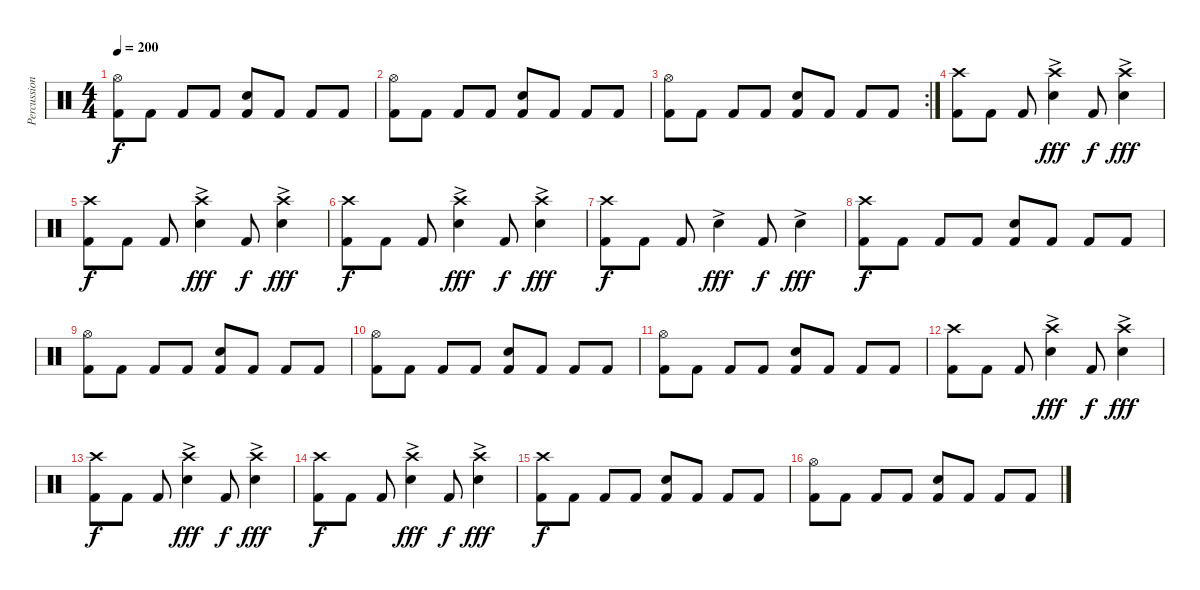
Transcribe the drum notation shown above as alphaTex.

\track ("Percussion" "Percussion") {instrument percussion}
\staff {score}
\articulation defaults
\ts (4 4)
\tempo 200
\clef neutral
\ks c
("Hi-Hat (open)" "Kick (hit) 2").8{dy f} "Kick (hit) 2".8 "Kick (hit) 2".8 "Kick (hit) 2".8 ("Electric Snare (hit)" "Kick (hit) 2").8 "Kick (hit) 2".8 "Kick (hit) 2".8 "Kick (hit) 2".8 |
("Hi-Hat (open)" "Kick (hit) 2").8 "Kick (hit) 2".8 "Kick (hit) 2".8 "Kick (hit) 2".8 ("Electric Snare (hit)" "Kick (hit) 2").8 "Kick (hit) 2".8 "Kick (hit) 2".8 "Kick (hit) 2".8 |
\rc 2
("Hi-Hat (open)" "Kick (hit) 2").8 "Kick (hit) 2".8 "Kick (hit) 2".8 "Kick (hit) 2".8 ("Electric Snare (hit)" "Kick (hit) 2").8 "Kick (hit) 2".8 "Kick (hit) 2".8 "Kick (hit) 2".8 |
("Crash high (hit)" "Kick (hit) 2").8 "Kick (hit) 2".8 "Kick (hit) 2".8 ("Crash high (hit)" "Electric Snare (hit)"{ac}).4{dy fff} "Kick (hit) 2".8{dy f} ("Crash high (hit)" "Electric Snare (hit)"{ac}).4{dy fff} |
("Crash high (hit)" "Kick (hit) 2").8{dy f} "Kick (hit) 2".8 "Kick (hit) 2".8 ("Crash high (hit)" "Electric Snare (hit)"{ac}).4{dy fff} "Kick (hit) 2".8{dy f} ("Crash high (hit)" "Electric Snare (hit)"{ac}).4{dy fff} |
("Crash high (hit)" "Kick (hit) 2").8{dy f} "Kick (hit) 2".8 "Kick (hit) 2".8 ("Crash high (hit)" "Electric Snare (hit)"{ac}).4{dy fff} "Kick (hit) 2".8{dy f} ("Crash high (hit)" "Electric Snare (hit)"{ac}).4{dy fff} |
("Crash high (hit)" "Kick (hit) 2").8{dy f} "Kick (hit) 2".8 "Kick (hit) 2".8 "Electric Snare (hit)"{ac}.4{dy fff} "Kick (hit) 2".8{dy f} "Electric Snare (hit)"{ac}.4{dy fff} |
("Crash high (hit)" "Kick (hit) 2").8{dy f} "Kick (hit) 2".8 "Kick (hit) 2".8 "Kick (hit) 2".8 ("Electric Snare (hit)" "Kick (hit) 2").8 "Kick (hit) 2".8 "Kick (hit) 2".8 "Kick (hit) 2".8 |
("Hi-Hat (open)" "Kick (hit) 2").8 "Kick (hit) 2".8 "Kick (hit) 2".8 "Kick (hit) 2".8 ("Electric Snare (hit)" "Kick (hit) 2").8 "Kick (hit) 2".8 "Kick (hit) 2".8 "Kick (hit) 2".8 |
("Hi-Hat (open)" "Kick (hit) 2").8 "Kick (hit) 2".8 "Kick (hit) 2".8 "Kick (hit) 2".8 ("Electric Snare (hit)" "Kick (hit) 2").8 "Kick (hit) 2".8 "Kick (hit) 2".8 "Kick (hit) 2".8 |
("Hi-Hat (open)" "Kick (hit) 2").8 "Kick (hit) 2".8 "Kick (hit) 2".8 "Kick (hit) 2".8 ("Electric Snare (hit)" "Kick (hit) 2").8 "Kick (hit) 2".8 "Kick (hit) 2".8 "Kick (hit) 2".8 |
("Crash high (hit)" "Kick (hit) 2").8 "Kick (hit) 2".8 "Kick (hit) 2".8 ("Crash high (hit)" "Electric Snare (hit)"{ac}).4{dy fff} "Kick (hit) 2".8{dy f} ("Crash high (hit)" "Electric Snare (hit)"{ac}).4{dy fff} |
("Crash high (hit)" "Kick (hit) 2").8{dy f} "Kick (hit) 2".8 "Kick (hit) 2".8 ("Crash high (hit)" "Electric Snare (hit)"{ac}).4{dy fff} "Kick (hit) 2".8{dy f} ("Crash high (hit)" "Electric Snare (hit)"{ac}).4{dy fff} |
("Crash high (hit)" "Kick (hit) 2").8{dy f} "Kick (hit) 2".8 "Kick (hit) 2".8 ("Crash high (hit)" "Electric Snare (hit)"{ac}).4{dy fff} "Kick (hit) 2".8{dy f} ("Crash high (hit)" "Electric Snare (hit)"{ac}).4{dy fff} |
("Crash high (hit)" "Kick (hit) 2").8{dy f} "Kick (hit) 2".8 "Kick (hit) 2".8 "Kick (hit) 2".8 ("Electric Snare (hit)" "Kick (hit) 2").8 "Kick (hit) 2".8 "Kick (hit) 2".8 "Kick (hit) 2".8 |
("Hi-Hat (open)" "Kick (hit) 2").8 "Kick (hit) 2".8 "Kick (hit) 2".8 "Kick (hit) 2".8 ("Electric Snare (hit)" "Kick (hit) 2").8 "Kick (hit) 2".8 "Kick (hit) 2".8 "Kick (hit) 2".8
